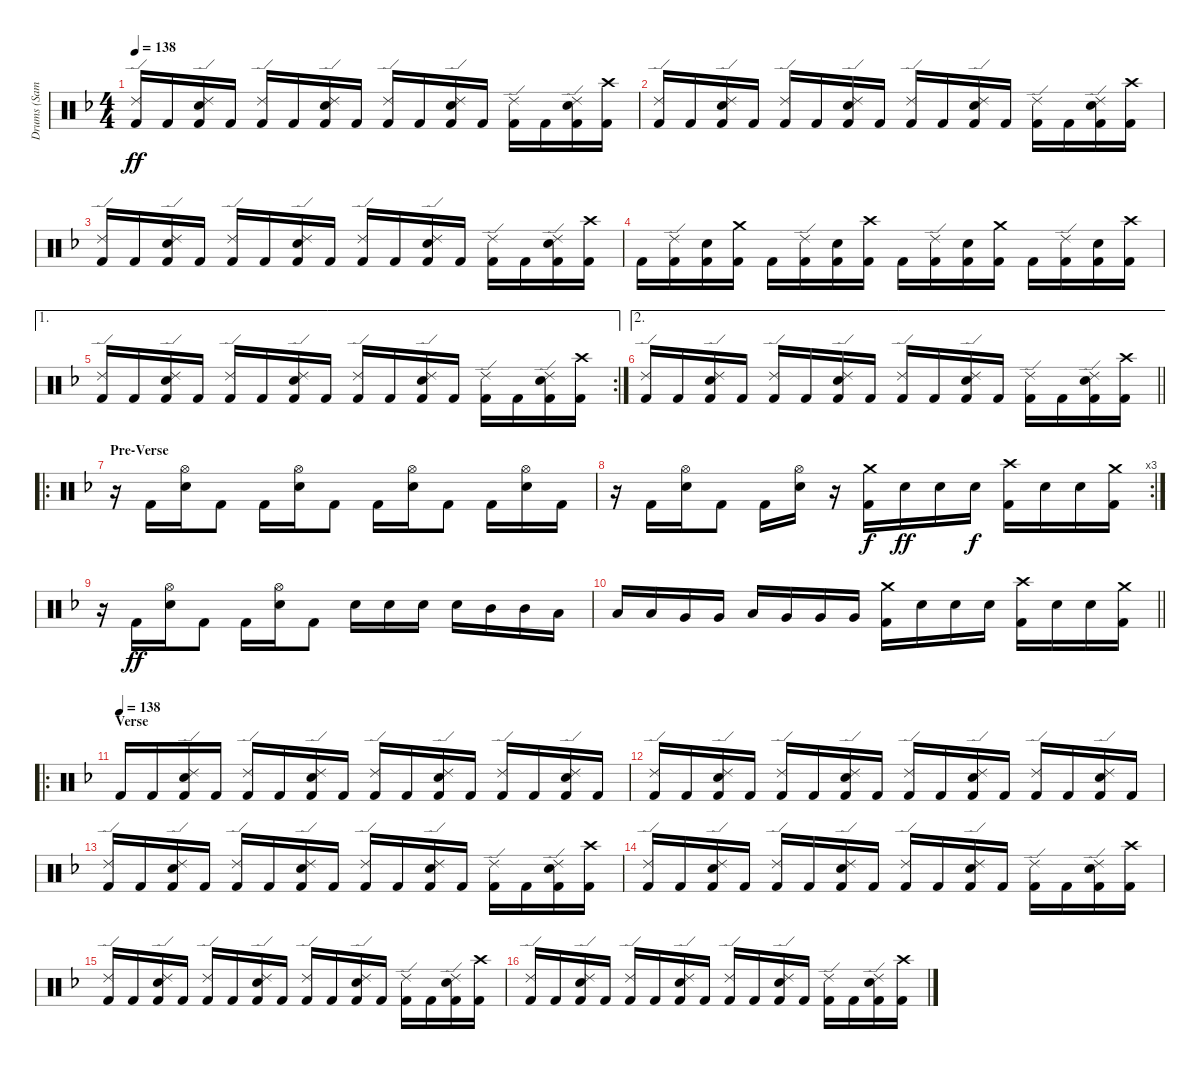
\track ("Drums (Samuelson)" "Drums (Sam") {instrument percussion}
\staff {score}
\articulation defaults
\ts (4 4)
\tempo 138
\clef neutral
\ks f
("Ride (edge) 2" "Kick (hit) 2").16{dy ff} "Kick (hit) 2".16 ("Ride (edge) 2" "Snare (hit) 2" "Kick (hit) 2").16 "Kick (hit) 2".16 ("Ride (edge) 2" "Kick (hit) 2").16 "Kick (hit) 2".16 ("Ride (edge) 2" "Snare (hit) 2" "Kick (hit) 2").16 "Kick (hit) 2".16 ("Ride (edge) 2" "Kick (hit) 2").16 "Kick (hit) 2".16 ("Ride (edge) 2" "Snare (hit) 2" "Kick (hit) 2").16 "Kick (hit) 2".16 ("Ride (edge) 2" "Kick (hit) 2").16 "Kick (hit) 2".16 ("Ride (edge) 2" "Snare (hit) 2" "Kick (hit) 2").16 ("Crash high (hit)" "Kick (hit) 2").16 |
("Ride (edge) 2" "Kick (hit) 2").16 "Kick (hit) 2".16 ("Ride (edge) 2" "Snare (hit) 2" "Kick (hit) 2").16 "Kick (hit) 2".16 ("Ride (edge) 2" "Kick (hit) 2").16 "Kick (hit) 2".16 ("Ride (edge) 2" "Snare (hit) 2" "Kick (hit) 2").16 "Kick (hit) 2".16 ("Ride (edge) 2" "Kick (hit) 2").16 "Kick (hit) 2".16 ("Ride (edge) 2" "Snare (hit) 2" "Kick (hit) 2").16 "Kick (hit) 2".16 ("Ride (edge) 2" "Kick (hit) 2").16 "Kick (hit) 2".16 ("Ride (edge) 2" "Snare (hit) 2" "Kick (hit) 2").16 ("Crash high (hit)" "Kick (hit) 2").16 |
("Ride (edge) 2" "Kick (hit) 2").16 "Kick (hit) 2".16 ("Ride (edge) 2" "Snare (hit) 2" "Kick (hit) 2").16 "Kick (hit) 2".16 ("Ride (edge) 2" "Kick (hit) 2").16 "Kick (hit) 2".16 ("Ride (edge) 2" "Snare (hit) 2" "Kick (hit) 2").16 "Kick (hit) 2".16 ("Ride (edge) 2" "Kick (hit) 2").16 "Kick (hit) 2".16 ("Ride (edge) 2" "Snare (hit) 2" "Kick (hit) 2").16 "Kick (hit) 2".16 ("Ride (edge) 2" "Kick (hit) 2").16 "Kick (hit) 2".16 ("Ride (edge) 2" "Snare (hit) 2" "Kick (hit) 2").16 ("Crash high (hit)" "Kick (hit) 2").16 |
"Kick (hit) 2".16 ("Ride (edge) 2" "Kick (hit) 2").16 ("Snare (hit) 2" "Kick (hit) 2").16 ("Crash medium (hit)" "Kick (hit) 2").16 "Kick (hit) 2".16 ("Ride (edge) 2" "Kick (hit) 2").16 ("Snare (hit) 2" "Kick (hit) 2").16 ("Crash high (hit)" "Kick (hit) 2").16 "Kick (hit) 2".16 ("Ride (edge) 2" "Kick (hit) 2").16 ("Snare (hit) 2" "Kick (hit) 2").16 ("Crash medium (hit)" "Kick (hit) 2").16 "Kick (hit) 2".16 ("Ride (edge) 2" "Kick (hit) 2").16 ("Snare (hit) 2" "Kick (hit) 2").16 ("Crash high (hit)" "Kick (hit) 2").16 |
\ae 1
\rc 2
("Ride (edge) 2" "Kick (hit) 2").16 "Kick (hit) 2".16 ("Ride (edge) 2" "Snare (hit) 2" "Kick (hit) 2").16 "Kick (hit) 2".16 ("Ride (edge) 2" "Kick (hit) 2").16 "Kick (hit) 2".16 ("Ride (edge) 2" "Snare (hit) 2" "Kick (hit) 2").16 "Kick (hit) 2".16 ("Ride (edge) 2" "Kick (hit) 2").16 "Kick (hit) 2".16 ("Ride (edge) 2" "Snare (hit) 2" "Kick (hit) 2").16 "Kick (hit) 2".16 ("Ride (edge) 2" "Kick (hit) 2").16 "Kick (hit) 2".16 ("Ride (edge) 2" "Snare (hit) 2" "Kick (hit) 2").16 ("Crash high (hit)" "Kick (hit) 2").16 |
\ae 2
\barLineRight lightlight
("Ride (edge) 2" "Kick (hit) 2").16 "Kick (hit) 2".16 ("Ride (edge) 2" "Snare (hit) 2" "Kick (hit) 2").16 "Kick (hit) 2".16 ("Ride (edge) 2" "Kick (hit) 2").16 "Kick (hit) 2".16 ("Ride (edge) 2" "Snare (hit) 2" "Kick (hit) 2").16 "Kick (hit) 2".16 ("Ride (edge) 2" "Kick (hit) 2").16 "Kick (hit) 2".16 ("Ride (edge) 2" "Snare (hit) 2" "Kick (hit) 2").16 "Kick (hit) 2".16 ("Ride (edge) 2" "Kick (hit) 2").16 "Kick (hit) 2".16 ("Ride (edge) 2" "Snare (hit) 2" "Kick (hit) 2").16 ("Crash high (hit)" "Kick (hit) 2").16 |
\ro
\section ("" "Pre-Verse")
r.16 "Kick (hit) 2".16 ("Hi-Hat (open)" "Snare (hit) 2").16 "Kick (hit) 2".8 "Kick (hit) 2".16 ("Hi-Hat (open)" "Snare (hit) 2").16 "Kick (hit) 2".8 "Kick (hit) 2".16 ("Hi-Hat (open)" "Snare (hit) 2").16 "Kick (hit) 2".8 "Kick (hit) 2".16 ("Hi-Hat (open)" "Snare (hit) 2").16 "Kick (hit) 2".16 |
\rc 3
r.16 "Kick (hit) 2".16 ("Hi-Hat (open)" "Snare (hit) 2").16 "Kick (hit) 2".8 "Kick (hit) 2".16 ("Hi-Hat (open)" "Snare (hit) 2").16 r.16 ("Crash medium (hit)" "Kick (hit) 2").16{dy f} "Snare (hit) 2".16{dy ff} "Snare (hit) 2".16 "Snare (hit) 2".16{dy f} ("Crash high (hit)" "Kick (hit) 2").16 "Snare (hit) 2".16 "Snare (hit) 2".16 ("Crash medium (hit)" "Kick (hit) 2").16 |
r.16 "Kick (hit) 2".16{dy ff} ("Hi-Hat (open)" "Snare (hit) 2").16 "Kick (hit) 2".8 "Kick (hit) 2".16 ("Hi-Hat (open)" "Snare (hit) 2").16 "Kick (hit) 2".8 "Snare (hit) 2".16 "Snare (hit) 2".16 "Snare (hit) 2".16 "Snare (hit) 2".16 "Mid Tom (hit)".16 "Mid Tom (hit)".16 "Low Tom (hit)".16 |
\barLineRight lightlight "Low Tom (hit)".16 "Low Tom (hit)".16 "Very Low Tom (hit)".16 "Very Low Tom (hit)".16 "Low Tom (hit)".16 "Very Low Tom (hit)".16 "Very Low Tom (hit)".16 "Very Low Tom (hit)".16
("Crash medium (hit)" "Kick (hit) 2").16 "Snare (hit) 2".16 "Snare (hit) 2".16 "Snare (hit) 2".16 ("Crash high (hit)" "Kick (hit) 2").16 "Snare (hit) 2".16 "Snare (hit) 2".16 ("Crash medium (hit)" "Kick (hit) 2").16 |
\ro
\section ("" "Verse")
\tempo (138)
"Kick (hit) 2".16 "Kick (hit) 2".16 ("Ride (edge) 2" "Snare (hit) 2" "Kick (hit) 2").16 "Kick (hit) 2".16 ("Ride (edge) 2" "Kick (hit) 2").16 "Kick (hit) 2".16 ("Ride (edge) 2" "Snare (hit) 2" "Kick (hit) 2").16 "Kick (hit) 2".16 ("Ride (edge) 2" "Kick (hit) 2").16 "Kick (hit) 2".16 ("Ride (edge) 2" "Snare (hit) 2" "Kick (hit) 2").16 "Kick (hit) 2".16 ("Ride (edge) 2" "Kick (hit) 2").16 "Kick (hit) 2".16 ("Ride (edge) 2" "Snare (hit) 2" "Kick (hit) 2").16 "Kick (hit) 2".16 |
("Ride (edge) 2" "Kick (hit) 2").16 "Kick (hit) 2".16 ("Ride (edge) 2" "Snare (hit) 2" "Kick (hit) 2").16 "Kick (hit) 2".16 ("Ride (edge) 2" "Kick (hit) 2").16 "Kick (hit) 2".16 ("Ride (edge) 2" "Snare (hit) 2" "Kick (hit) 2").16 "Kick (hit) 2".16 ("Ride (edge) 2" "Kick (hit) 2").16 "Kick (hit) 2".16 ("Ride (edge) 2" "Snare (hit) 2" "Kick (hit) 2").16 "Kick (hit) 2".16 ("Ride (edge) 2" "Kick (hit) 2").16 "Kick (hit) 2".16 ("Ride (edge) 2" "Snare (hit) 2" "Kick (hit) 2").16 "Kick (hit) 2".16 |
("Ride (edge) 2" "Kick (hit) 2").16 "Kick (hit) 2".16 ("Ride (edge) 2" "Snare (hit) 2" "Kick (hit) 2").16 "Kick (hit) 2".16 ("Ride (edge) 2" "Kick (hit) 2").16 "Kick (hit) 2".16 ("Ride (edge) 2" "Snare (hit) 2" "Kick (hit) 2").16 "Kick (hit) 2".16 ("Ride (edge) 2" "Kick (hit) 2").16 "Kick (hit) 2".16 ("Ride (edge) 2" "Snare (hit) 2" "Kick (hit) 2").16 "Kick (hit) 2".16 ("Ride (edge) 2" "Kick (hit) 2").16 "Kick (hit) 2".16 ("Ride (edge) 2" "Snare (hit) 2" "Kick (hit) 2").16 ("Crash high (hit)" "Kick (hit) 2").16 |
("Ride (edge) 2" "Kick (hit) 2").16 "Kick (hit) 2".16 ("Ride (edge) 2" "Snare (hit) 2" "Kick (hit) 2").16 "Kick (hit) 2".16 ("Ride (edge) 2" "Kick (hit) 2").16 "Kick (hit) 2".16 ("Ride (edge) 2" "Snare (hit) 2" "Kick (hit) 2").16 "Kick (hit) 2".16 ("Ride (edge) 2" "Kick (hit) 2").16 "Kick (hit) 2".16 ("Ride (edge) 2" "Snare (hit) 2" "Kick (hit) 2").16 "Kick (hit) 2".16 ("Ride (edge) 2" "Kick (hit) 2").16 "Kick (hit) 2".16 ("Ride (edge) 2" "Snare (hit) 2" "Kick (hit) 2").16 ("Crash high (hit)" "Kick (hit) 2").16 |
("Ride (edge) 2" "Kick (hit) 2").16 "Kick (hit) 2".16 ("Ride (edge) 2" "Snare (hit) 2" "Kick (hit) 2").16 "Kick (hit) 2".16 ("Ride (edge) 2" "Kick (hit) 2").16 "Kick (hit) 2".16 ("Ride (edge) 2" "Snare (hit) 2" "Kick (hit) 2").16 "Kick (hit) 2".16 ("Ride (edge) 2" "Kick (hit) 2").16 "Kick (hit) 2".16 ("Ride (edge) 2" "Snare (hit) 2" "Kick (hit) 2").16 "Kick (hit) 2".16 ("Ride (edge) 2" "Kick (hit) 2").16 "Kick (hit) 2".16 ("Ride (edge) 2" "Snare (hit) 2" "Kick (hit) 2").16 ("Crash high (hit)" "Kick (hit) 2").16 |
("Ride (edge) 2" "Kick (hit) 2").16 "Kick (hit) 2".16 ("Ride (edge) 2" "Snare (hit) 2" "Kick (hit) 2").16 "Kick (hit) 2".16 ("Ride (edge) 2" "Kick (hit) 2").16 "Kick (hit) 2".16 ("Ride (edge) 2" "Snare (hit) 2" "Kick (hit) 2").16 "Kick (hit) 2".16 ("Ride (edge) 2" "Kick (hit) 2").16 "Kick (hit) 2".16 ("Ride (edge) 2" "Snare (hit) 2" "Kick (hit) 2").16 "Kick (hit) 2".16 ("Ride (edge) 2" "Kick (hit) 2").16 "Kick (hit) 2".16 ("Ride (edge) 2" "Snare (hit) 2" "Kick (hit) 2").16 ("Crash high (hit)" "Kick (hit) 2").16
